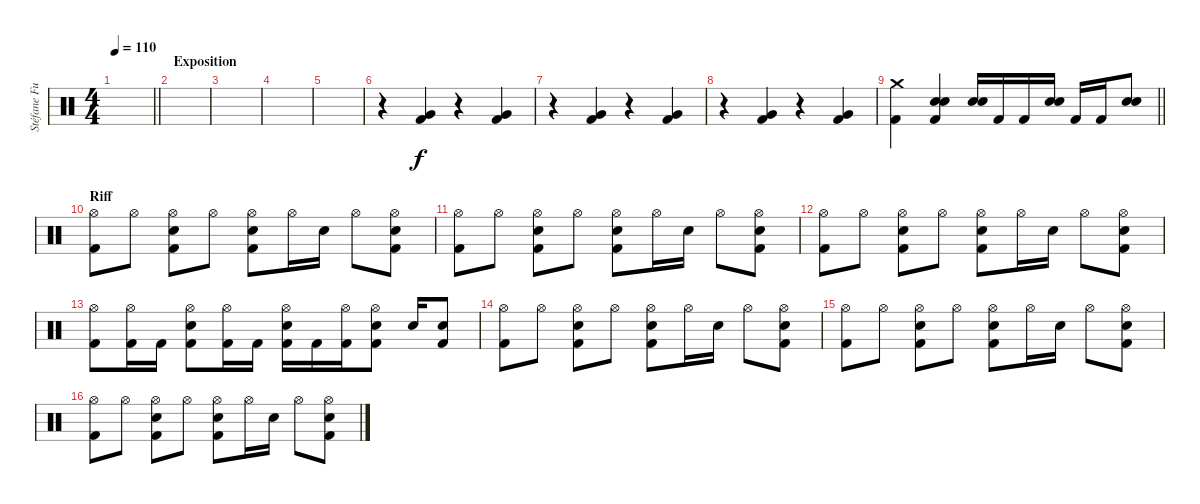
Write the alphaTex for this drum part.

\track ("Stéfane Funebre" "Stéfane Fu") {instrument percussion}
\staff {score}
\articulation defaults
\ts (4 4)
\tempo 110
\clef neutral
\barLineRight lightlight
\ks c
|
\section ("" "Exposition")
|
|
|
|
r.4 ("Very Low Tom (hit)" "Kick (hit) 2").4 r.4 ("Very Low Tom (hit)" "Kick (hit) 2").4 |
r.4 ("Very Low Tom (hit)" "Kick (hit) 2").4 r.4 ("Very Low Tom (hit)" "Kick (hit) 2").4 |
r.4 ("Very Low Tom (hit)" "Kick (hit) 2").4 r.4 ("Very Low Tom (hit)" "Kick (hit) 2").4 |
\barLineRight lightlight
("Crash medium (hit)" "Kick (hit) 2").4 ("Snare (hit) 2" "Snare (hit) 2" "Kick (hit) 2").4 ("Snare (hit) 2" "Snare (hit) 2").16 "Kick (hit) 2".16 "Kick (hit) 2".16 ("Snare (hit) 2" "Snare (hit) 2").16 "Kick (hit) 2".16 "Kick (hit) 2".16 ("Snare (hit) 2" "Snare (hit) 2").8 |
\section ("" "Riff")
("Hi-Hat (open)" "Kick (hit) 2").8 "Hi-Hat (open)".8 ("Hi-Hat (open)" "Snare (hit) 2" "Kick (hit) 2").8 "Hi-Hat (open)".8 ("Hi-Hat (open)" "Snare (hit) 2" "Kick (hit) 2").8 "Hi-Hat (open)".16 "Snare (hit) 2".16 "Hi-Hat (open)".8 ("Hi-Hat (open)" "Snare (hit) 2" "Kick (hit) 2").8 |
("Hi-Hat (open)" "Kick (hit) 2").8 "Hi-Hat (open)".8 ("Hi-Hat (open)" "Snare (hit) 2" "Kick (hit) 2").8 "Hi-Hat (open)".8 ("Hi-Hat (open)" "Snare (hit) 2" "Kick (hit) 2").8 "Hi-Hat (open)".16 "Snare (hit) 2".16 "Hi-Hat (open)".8 ("Hi-Hat (open)" "Snare (hit) 2" "Kick (hit) 2").8 |
("Hi-Hat (open)" "Kick (hit) 2").8 "Hi-Hat (open)".8 ("Hi-Hat (open)" "Snare (hit) 2" "Kick (hit) 2").8 "Hi-Hat (open)".8 ("Hi-Hat (open)" "Snare (hit) 2" "Kick (hit) 2").8 "Hi-Hat (open)".16 "Snare (hit) 2".16 "Hi-Hat (open)".8 ("Hi-Hat (open)" "Snare (hit) 2" "Kick (hit) 2").8 |
("Hi-Hat (open)" "Kick (hit) 2").8 ("Hi-Hat (open)" "Kick (hit) 2").16 "Kick (hit) 2".16 ("Hi-Hat (open)" "Snare (hit) 2" "Kick (hit) 2").8 ("Hi-Hat (open)" "Kick (hit) 2").16 "Kick (hit) 2".16 ("Hi-Hat (open)" "Snare (hit) 2" "Kick (hit) 2").16 "Kick (hit) 2".16 ("Hi-Hat (open)" "Kick (hit) 2").16 ("Hi-Hat (open)" "Snare (hit) 2" "Kick (hit) 2").8 "Snare (hit) 2".16 ("Snare (hit) 2" "Kick (hit) 2").8 |
("Hi-Hat (open)" "Kick (hit) 2").8 "Hi-Hat (open)".8 ("Hi-Hat (open)" "Snare (hit) 2" "Kick (hit) 2").8 "Hi-Hat (open)".8 ("Hi-Hat (open)" "Snare (hit) 2" "Kick (hit) 2").8 "Hi-Hat (open)".16 "Snare (hit) 2".16 "Hi-Hat (open)".8 ("Hi-Hat (open)" "Snare (hit) 2" "Kick (hit) 2").8 |
("Hi-Hat (open)" "Kick (hit) 2").8 "Hi-Hat (open)".8 ("Hi-Hat (open)" "Snare (hit) 2" "Kick (hit) 2").8 "Hi-Hat (open)".8 ("Hi-Hat (open)" "Snare (hit) 2" "Kick (hit) 2").8 "Hi-Hat (open)".16 "Snare (hit) 2".16 "Hi-Hat (open)".8 ("Hi-Hat (open)" "Snare (hit) 2" "Kick (hit) 2").8 |
("Hi-Hat (open)" "Kick (hit) 2").8 "Hi-Hat (open)".8 ("Hi-Hat (open)" "Snare (hit) 2" "Kick (hit) 2").8 "Hi-Hat (open)".8 ("Hi-Hat (open)" "Snare (hit) 2" "Kick (hit) 2").8 "Hi-Hat (open)".16 "Snare (hit) 2".16 "Hi-Hat (open)".8 ("Hi-Hat (open)" "Snare (hit) 2" "Kick (hit) 2").8
